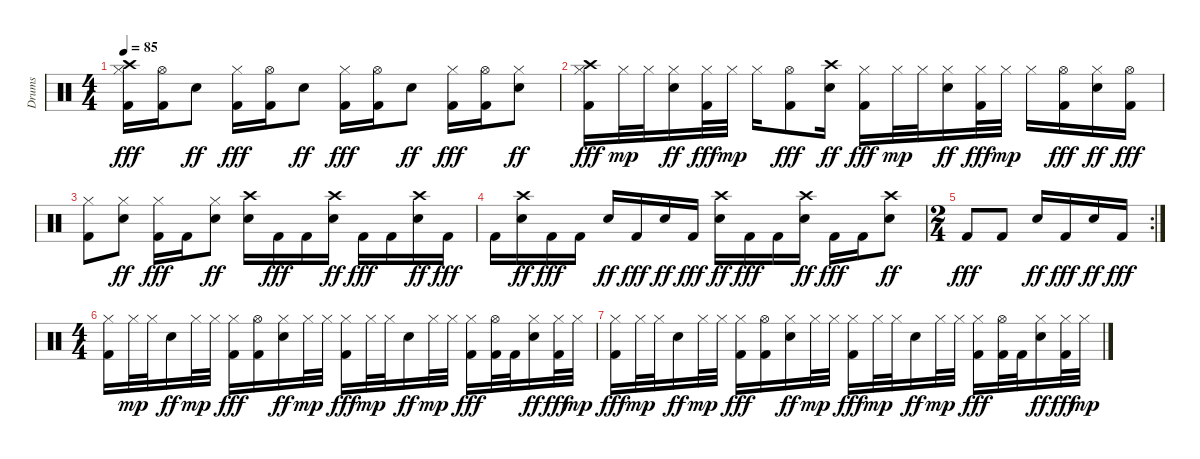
\track ("Drums" "Drums") {instrument percussion}
\staff {score}
\articulation defaults
\ts (4 4)
\tempo 85
\clef neutral
\ks c
("Crash high (hit)" "Hi-Hat (closed)" "Kick (hit) 2").16{dy fff} ("Hi-Hat (open)" "Kick (hit) 2").16 "Snare (hit) 2".8{dy ff} ("Hi-Hat (closed)" "Kick (hit) 2").16{dy fff} ("Hi-Hat (open)" "Kick (hit) 2").16 "Snare (hit) 2".8{dy ff} ("Hi-Hat (closed)" "Kick (hit) 2").16{dy fff} ("Hi-Hat (open)" "Kick (hit) 2").16 "Snare (hit) 2".8{dy ff} ("Hi-Hat (closed)" "Kick (hit) 2").16{dy fff} ("Hi-Hat (open)" "Kick (hit) 2").16 ("Hi-Hat (closed)" "Snare (hit) 2").8{dy ff} |
\section ("" "")
("Crash high (hit)" "Hi-Hat (closed)" "Kick (hit) 2").16{dy fff} "Hi-Hat (closed)".32{dy mp} "Hi-Hat (closed)".32 ("Hi-Hat (closed)" "Snare (hit) 2").16{dy ff} ("Hi-Hat (closed)" "Kick (hit) 2").32{dy fff} "Hi-Hat (closed)".32{dy mp} "Hi-Hat (closed)".16 ("Hi-Hat (open)" "Kick (hit) 2").8{dy fff} ("Crash high (hit)" "Snare (hit) 2").16{dy ff} ("Hi-Hat (closed)" "Kick (hit) 2").16{dy fff} "Hi-Hat (closed)".32{dy mp} "Hi-Hat (closed)".32 ("Hi-Hat (closed)" "Snare (hit) 2").16{dy ff} ("Hi-Hat (closed)" "Kick (hit) 2").32{dy fff} "Hi-Hat (closed)".32{dy mp} "Hi-Hat (closed)".16 ("Hi-Hat (open)" "Kick (hit) 2").16{dy fff} ("Hi-Hat (closed)" "Snare (hit) 2").16{dy ff} ("Hi-Hat (open)" "Kick (hit) 2").16{dy fff} |
("Hi-Hat (closed)" "Kick (hit) 2").8 ("Hi-Hat (closed)" "Snare (hit) 2").8{dy ff} ("Hi-Hat (closed)" "Kick (hit) 2").16{dy fff} "Kick (hit) 2".16 ("Hi-Hat (closed)" "Snare (hit) 2").8{dy ff} ("Crash high (hit)" "Snare (hit) 2").16 "Kick (hit) 2".16{dy fff} "Kick (hit) 2".16 ("Crash high (hit)" "Snare (hit) 2").16{dy ff} "Kick (hit) 2".16{dy fff} "Kick (hit) 2".16 ("Crash high (hit)" "Snare (hit) 2").16{dy ff} "Kick (hit) 2".16{dy fff} |
"Kick (hit) 2".16 ("Crash high (hit)" "Snare (hit) 2").16{dy ff} "Kick (hit) 2".16{dy fff} "Kick (hit) 2".16 "Snare (hit) 2".16{dy ff} "Kick (hit) 2".16{dy fff} "Snare (hit) 2".16{dy ff} "Kick (hit) 2".16{dy fff} ("Crash high (hit)" "Snare (hit) 2").16{dy ff} "Kick (hit) 2".16{dy fff} "Kick (hit) 2".16 ("Crash high (hit)" "Snare (hit) 2").16{dy ff} "Kick (hit) 2".16{dy fff} "Kick (hit) 2".16 ("Crash high (hit)" "Snare (hit) 2").8{dy ff} |
\rc 2
\ts (2 4)
"Kick (hit) 2".8{dy fff} "Kick (hit) 2".8 "Snare (hit) 2".16{dy ff} "Kick (hit) 2".16{dy fff} "Snare (hit) 2".16{dy ff} "Kick (hit) 2".16{dy fff} |
\ts (4 4)
\section ("" "")
("Hi-Hat (closed)" "Kick (hit) 2").16 "Hi-Hat (closed)".32{dy mp} "Hi-Hat (closed)".32 "Snare (hit) 2".16{dy ff} "Hi-Hat (closed)".32{dy mp} "Hi-Hat (closed)".32 ("Hi-Hat (closed)" "Kick (hit) 2").16{dy fff} ("Hi-Hat (open)" "Kick (hit) 2").16 ("Hi-Hat (closed)" "Snare (hit) 2").16{dy ff} "Hi-Hat (closed)".32{dy mp} "Hi-Hat (closed)".32 ("Hi-Hat (closed)" "Kick (hit) 2").16{dy fff volume 0} "Hi-Hat (closed)".32{dy mp} "Hi-Hat (closed)".32 "Snare (hit) 2".16{dy ff} "Hi-Hat (closed)".32{dy mp} "Hi-Hat (closed)".32 ("Hi-Hat (closed)" "Kick (hit) 2").16{dy fff} ("Hi-Hat (open)" "Kick (hit) 2").32 "Kick (hit) 2".32 ("Hi-Hat (closed)" "Snare (hit) 2").16{dy ff} ("Hi-Hat (closed)" "Kick (hit) 2").32{dy fff} "Hi-Hat (closed)".32{dy mp} |
("Hi-Hat (closed)" "Kick (hit) 2").16{dy fff} "Hi-Hat (closed)".32{dy mp} "Hi-Hat (closed)".32 "Snare (hit) 2".16{dy ff} "Hi-Hat (closed)".32{dy mp} "Hi-Hat (closed)".32 ("Hi-Hat (closed)" "Kick (hit) 2").16{dy fff} ("Hi-Hat (open)" "Kick (hit) 2").16 ("Hi-Hat (closed)" "Snare (hit) 2").16{dy ff} "Hi-Hat (closed)".32{dy mp} "Hi-Hat (closed)".32 ("Hi-Hat (closed)" "Kick (hit) 2").16{dy fff} "Hi-Hat (closed)".32{dy mp} "Hi-Hat (closed)".32 "Snare (hit) 2".16{dy ff} "Hi-Hat (closed)".32{dy mp} "Hi-Hat (closed)".32 ("Hi-Hat (closed)" "Kick (hit) 2").16{dy fff} ("Hi-Hat (open)" "Kick (hit) 2").32 "Kick (hit) 2".32 ("Hi-Hat (closed)" "Snare (hit) 2").16{dy ff} ("Hi-Hat (closed)" "Kick (hit) 2").32{dy fff} "Hi-Hat (closed)".32{dy mp}
